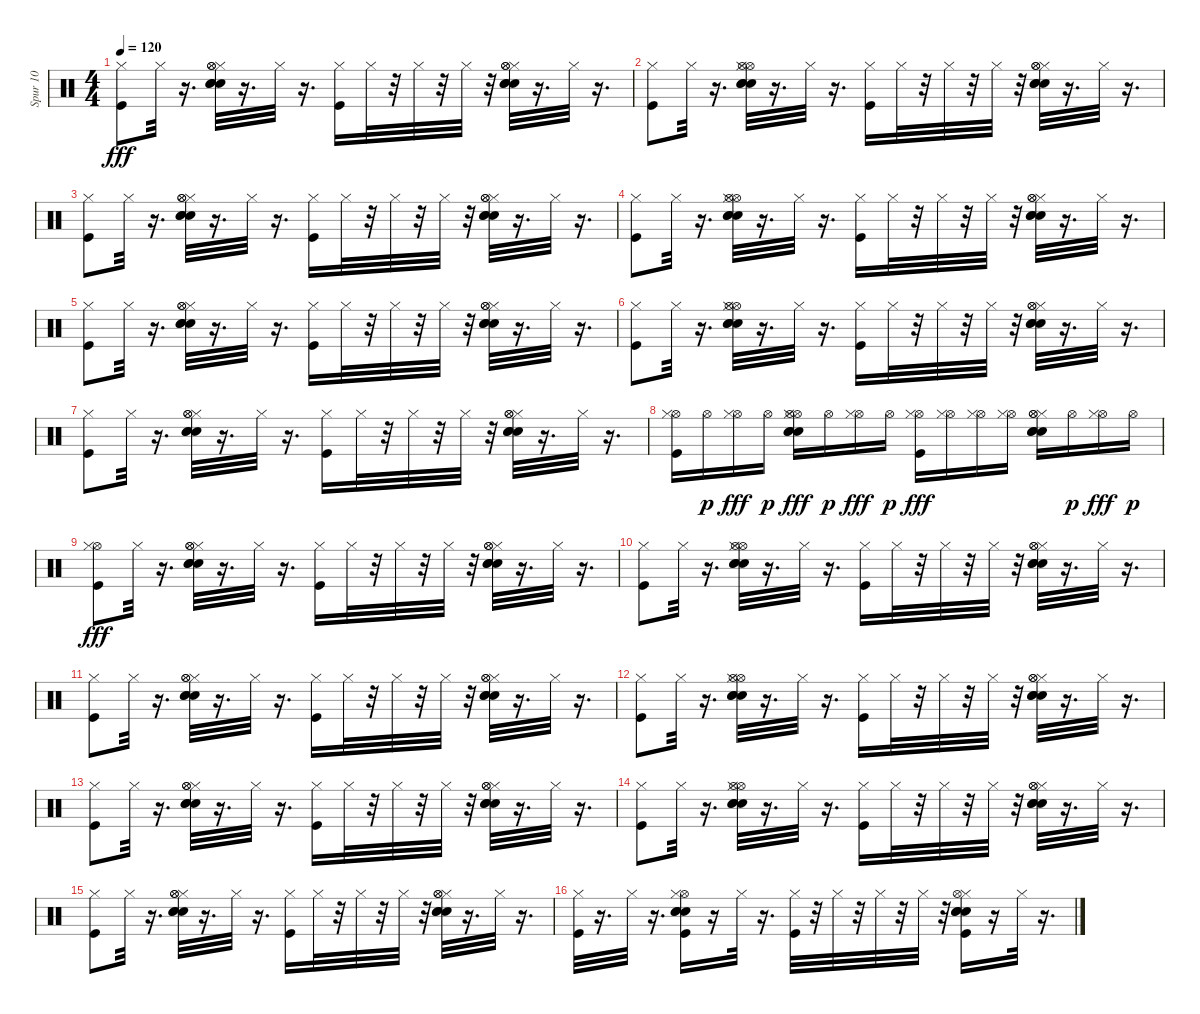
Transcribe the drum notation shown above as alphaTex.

\track ("Spur 10" "Spur 10") {instrument percussion}
\staff {score}
\articulation defaults
\ts (4 4)
\tempo 120
\clef neutral
\ks c
("Kick (hit)" "Hi-Hat (closed)").8{dy fff} "Hi-Hat (closed)".32 r.16{d} ("Snare (hit) 2" "Snare (hit) 2" "Hi-Hat (closed)" "Snare (hit) 2" "Hi-Hat (open)" "Hi-Hat (open)").32 r.16{d} "Hi-Hat (closed)".32 r.16{d} ("Hi-Hat (closed)" "Kick (hit)").16 "Hi-Hat (closed)".32 r.32 "Hi-Hat (closed)".32 r.32 "Hi-Hat (closed)".32 r.32 ("Hi-Hat (closed)" "Snare (hit) 2" "Hi-Hat (open)" "Hi-Hat (open)" "Snare (hit) 2" "Snare (hit) 2").32 r.16{d} "Hi-Hat (closed)".32 r.16{d} |
("Hi-Hat (closed)" "Kick (hit)").8 "Hi-Hat (closed)".32 r.16{d} ("Hi-Hat (open)" "Hi-Hat (closed)" "Snare (hit) 2" "Hi-Hat (open)" "Snare (hit) 2" "Snare (hit) 2").32 r.16{d} "Hi-Hat (closed)".32 r.16{d} ("Kick (hit)" "Hi-Hat (closed)").16 "Hi-Hat (closed)".32 r.32 "Hi-Hat (closed)".32 r.32 "Hi-Hat (closed)".32 r.32 ("Snare (hit) 2" "Hi-Hat (closed)" "Hi-Hat (open)" "Snare (hit) 2" "Hi-Hat (open)" "Snare (hit) 2").32 r.16{d} "Hi-Hat (closed)".32 r.16{d} |
("Kick (hit)" "Hi-Hat (closed)").8 "Hi-Hat (closed)".32 r.16{d} ("Snare (hit) 2" "Snare (hit) 2" "Hi-Hat (closed)" "Snare (hit) 2" "Hi-Hat (open)" "Hi-Hat (open)").32 r.16{d} "Hi-Hat (closed)".32 r.16{d} ("Hi-Hat (closed)" "Kick (hit)").16 "Hi-Hat (closed)".32 r.32 "Hi-Hat (closed)".32 r.32 "Hi-Hat (closed)".32 r.32 ("Hi-Hat (closed)" "Snare (hit) 2" "Hi-Hat (open)" "Hi-Hat (open)" "Snare (hit) 2" "Snare (hit) 2").32 r.16{d} "Hi-Hat (closed)".32 r.16{d} |
("Hi-Hat (closed)" "Kick (hit)").8 "Hi-Hat (closed)".32 r.16{d} ("Hi-Hat (open)" "Hi-Hat (closed)" "Snare (hit) 2" "Hi-Hat (open)" "Snare (hit) 2" "Snare (hit) 2").32 r.16{d} "Hi-Hat (closed)".32 r.16{d} ("Kick (hit)" "Hi-Hat (closed)").16 "Hi-Hat (closed)".32 r.32 "Hi-Hat (closed)".32 r.32 "Hi-Hat (closed)".32 r.32 ("Snare (hit) 2" "Hi-Hat (closed)" "Hi-Hat (open)" "Snare (hit) 2" "Hi-Hat (open)" "Snare (hit) 2").32 r.16{d} "Hi-Hat (closed)".32 r.16{d} |
("Kick (hit)" "Hi-Hat (closed)").8 "Hi-Hat (closed)".32 r.16{d} ("Snare (hit) 2" "Snare (hit) 2" "Hi-Hat (closed)" "Snare (hit) 2" "Hi-Hat (open)" "Hi-Hat (open)").32 r.16{d} "Hi-Hat (closed)".32 r.16{d} ("Hi-Hat (closed)" "Kick (hit)").16 "Hi-Hat (closed)".32 r.32 "Hi-Hat (closed)".32 r.32 "Hi-Hat (closed)".32 r.32 ("Hi-Hat (closed)" "Snare (hit) 2" "Hi-Hat (open)" "Hi-Hat (open)" "Snare (hit) 2" "Snare (hit) 2").32 r.16{d} "Hi-Hat (closed)".32 r.16{d} |
("Hi-Hat (closed)" "Kick (hit)").8 "Hi-Hat (closed)".32 r.16{d} ("Hi-Hat (open)" "Hi-Hat (closed)" "Snare (hit) 2" "Hi-Hat (open)" "Snare (hit) 2" "Snare (hit) 2").32 r.16{d} "Hi-Hat (closed)".32 r.16{d} ("Kick (hit)" "Hi-Hat (closed)").16 "Hi-Hat (closed)".32 r.32 "Hi-Hat (closed)".32 r.32 "Hi-Hat (closed)".32 r.32 ("Snare (hit) 2" "Hi-Hat (closed)" "Hi-Hat (open)" "Snare (hit) 2" "Hi-Hat (open)" "Snare (hit) 2").32 r.16{d} "Hi-Hat (closed)".32 r.16{d} |
("Kick (hit)" "Hi-Hat (closed)").8 "Hi-Hat (closed)".32 r.16{d} ("Snare (hit) 2" "Snare (hit) 2" "Hi-Hat (closed)" "Snare (hit) 2" "Hi-Hat (open)" "Hi-Hat (open)").32 r.16{d} "Hi-Hat (closed)".32 r.16{d} ("Hi-Hat (closed)" "Kick (hit)").16 "Hi-Hat (closed)".32 r.32 "Hi-Hat (closed)".32 r.32 "Hi-Hat (closed)".32 r.32 ("Hi-Hat (closed)" "Snare (hit) 2" "Hi-Hat (open)" "Hi-Hat (open)" "Snare (hit) 2" "Snare (hit) 2").32 r.16{d} "Hi-Hat (closed)".32 r.16{d} |
("Hi-Hat (open)" "Hi-Hat (closed)" "Kick (hit)").16 "Hi-Hat (open)".16{dy p} ("Hi-Hat (open)" "Hi-Hat (closed)").16{dy fff} "Hi-Hat (open)".16{dy p} ("Hi-Hat (open)" "Hi-Hat (closed)" "Snare (hit) 2" "Hi-Hat (open)" "Snare (hit) 2" "Snare (hit) 2").16{dy fff} "Hi-Hat (open)".16{dy p} ("Hi-Hat (open)" "Hi-Hat (closed)").16{dy fff} "Hi-Hat (open)".16{dy p} ("Hi-Hat (open)" "Kick (hit)" "Hi-Hat (closed)").16{dy fff} ("Hi-Hat (open)" "Hi-Hat (closed)").16 ("Hi-Hat (open)" "Hi-Hat (closed)").16 ("Hi-Hat (open)" "Hi-Hat (closed)").16 ("Snare (hit) 2" "Hi-Hat (closed)" "Hi-Hat (open)" "Snare (hit) 2" "Hi-Hat (open)" "Snare (hit) 2").16 "Hi-Hat (open)".16{dy p} ("Hi-Hat (open)" "Hi-Hat (closed)").16{dy fff} "Hi-Hat (open)".16{dy p} |
("Hi-Hat (open)" "Kick (hit)" "Hi-Hat (closed)").8{dy fff} "Hi-Hat (closed)".32 r.16{d} ("Snare (hit) 2" "Snare (hit) 2" "Hi-Hat (closed)" "Snare (hit) 2" "Hi-Hat (open)" "Hi-Hat (open)").32 r.16{d} "Hi-Hat (closed)".32 r.16{d} ("Hi-Hat (closed)" "Kick (hit)").16 "Hi-Hat (closed)".32 r.32 "Hi-Hat (closed)".32 r.32 "Hi-Hat (closed)".32 r.32 ("Hi-Hat (closed)" "Snare (hit) 2" "Hi-Hat (open)" "Hi-Hat (open)" "Snare (hit) 2" "Snare (hit) 2").32 r.16{d} "Hi-Hat (closed)".32 r.16{d} |
("Hi-Hat (closed)" "Kick (hit)").8 "Hi-Hat (closed)".32 r.16{d} ("Hi-Hat (open)" "Hi-Hat (closed)" "Snare (hit) 2" "Hi-Hat (open)" "Snare (hit) 2" "Snare (hit) 2").32 r.16{d} "Hi-Hat (closed)".32 r.16{d} ("Kick (hit)" "Hi-Hat (closed)").16 "Hi-Hat (closed)".32 r.32 "Hi-Hat (closed)".32 r.32 "Hi-Hat (closed)".32 r.32 ("Snare (hit) 2" "Hi-Hat (closed)" "Hi-Hat (open)" "Snare (hit) 2" "Hi-Hat (open)" "Snare (hit) 2").32 r.16{d} "Hi-Hat (closed)".32 r.16{d} |
("Kick (hit)" "Hi-Hat (closed)").8 "Hi-Hat (closed)".32 r.16{d} ("Snare (hit) 2" "Snare (hit) 2" "Hi-Hat (closed)" "Snare (hit) 2" "Hi-Hat (open)" "Hi-Hat (open)").32 r.16{d} "Hi-Hat (closed)".32 r.16{d} ("Hi-Hat (closed)" "Kick (hit)").16 "Hi-Hat (closed)".32 r.32 "Hi-Hat (closed)".32 r.32 "Hi-Hat (closed)".32 r.32 ("Hi-Hat (closed)" "Snare (hit) 2" "Hi-Hat (open)" "Hi-Hat (open)" "Snare (hit) 2" "Snare (hit) 2").32 r.16{d} "Hi-Hat (closed)".32 r.16{d} |
("Hi-Hat (closed)" "Kick (hit)").8 "Hi-Hat (closed)".32 r.16{d} ("Hi-Hat (open)" "Hi-Hat (closed)" "Snare (hit) 2" "Hi-Hat (open)" "Snare (hit) 2" "Snare (hit) 2").32 r.16{d} "Hi-Hat (closed)".32 r.16{d} ("Kick (hit)" "Hi-Hat (closed)").16 "Hi-Hat (closed)".32 r.32 "Hi-Hat (closed)".32 r.32 "Hi-Hat (closed)".32 r.32 ("Snare (hit) 2" "Hi-Hat (closed)" "Hi-Hat (open)" "Snare (hit) 2" "Hi-Hat (open)" "Snare (hit) 2").32 r.16{d} "Hi-Hat (closed)".32 r.16{d} |
("Kick (hit)" "Hi-Hat (closed)").8 "Hi-Hat (closed)".32 r.16{d} ("Snare (hit) 2" "Snare (hit) 2" "Hi-Hat (closed)" "Snare (hit) 2" "Hi-Hat (open)" "Hi-Hat (open)").32 r.16{d} "Hi-Hat (closed)".32 r.16{d} ("Hi-Hat (closed)" "Kick (hit)").16 "Hi-Hat (closed)".32 r.32 "Hi-Hat (closed)".32 r.32 "Hi-Hat (closed)".32 r.32 ("Hi-Hat (closed)" "Snare (hit) 2" "Hi-Hat (open)" "Hi-Hat (open)" "Snare (hit) 2" "Snare (hit) 2").32 r.16{d} "Hi-Hat (closed)".32 r.16{d} |
("Hi-Hat (closed)" "Kick (hit)").8 "Hi-Hat (closed)".32 r.16{d} ("Hi-Hat (open)" "Hi-Hat (closed)" "Snare (hit) 2" "Hi-Hat (open)" "Snare (hit) 2" "Snare (hit) 2").32 r.16{d} "Hi-Hat (closed)".32 r.16{d} ("Kick (hit)" "Hi-Hat (closed)").16 "Hi-Hat (closed)".32 r.32 "Hi-Hat (closed)".32 r.32 "Hi-Hat (closed)".32 r.32 ("Snare (hit) 2" "Hi-Hat (closed)" "Hi-Hat (open)" "Snare (hit) 2" "Hi-Hat (open)" "Snare (hit) 2").32 r.16{d} "Hi-Hat (closed)".32 r.16{d} |
("Kick (hit)" "Hi-Hat (closed)").8 "Hi-Hat (closed)".32 r.16{d} ("Snare (hit) 2" "Snare (hit) 2" "Hi-Hat (closed)" "Snare (hit) 2" "Hi-Hat (open)" "Hi-Hat (open)").32 r.16{d} "Hi-Hat (closed)".32 r.16{d} ("Hi-Hat (closed)" "Kick (hit)").16 "Hi-Hat (closed)".32 r.32 "Hi-Hat (closed)".32 r.32 "Hi-Hat (closed)".32 r.32 ("Hi-Hat (closed)" "Snare (hit) 2" "Hi-Hat (open)" "Hi-Hat (open)" "Snare (hit) 2" "Snare (hit) 2").32 r.16{d} "Hi-Hat (closed)".32 r.16{d} |
("Hi-Hat (closed)" "Kick (hit)").32 r.16{d} "Hi-Hat (closed)".32 r.16{d} ("Hi-Hat (open)" "Hi-Hat (closed)" "Snare (hit) 2" "Snare (hit) 2" "Snare (hit) 2" "Kick (hit)").16 r.16 "Hi-Hat (closed)".32 r.16{d} ("Kick (hit)" "Hi-Hat (closed)").32 r.32 "Hi-Hat (closed)".32 r.32 "Hi-Hat (closed)".32 r.32 "Hi-Hat (closed)".32 r.32 ("Snare (hit) 2" "Hi-Hat (closed)" "Hi-Hat (open)" "Snare (hit) 2" "Snare (hit) 2" "Kick (hit)").16 r.16 "Hi-Hat (closed)".32 r.16{d}
